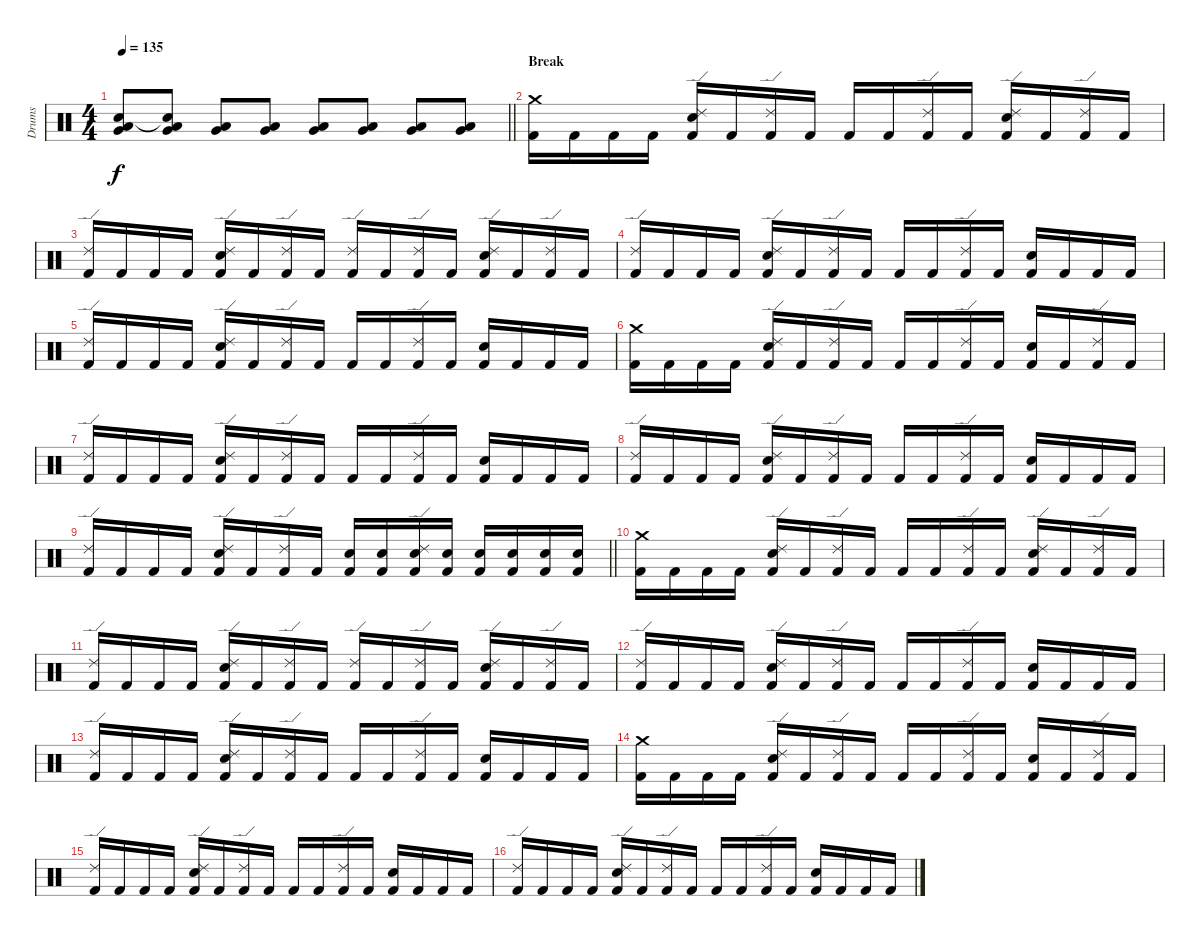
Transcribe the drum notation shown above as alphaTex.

\track ("Drums" "Drums") {instrument percussion}
\staff {score}
\articulation defaults
\ts (4 4)
\tempo 135
\clef neutral
\barLineRight lightlight
\ks c
("Very Low Tom (hit)" "Low Floor Tom (hit)" "Snare (hit)"{t}).8{dy f} ("Very Low Tom (hit)" "Low Floor Tom (hit)" "Snare (hit)"{t}).8 ("Very Low Tom (hit)" "Low Floor Tom (hit)").8 ("Very Low Tom (hit)" "Low Floor Tom (hit)").8 ("Very Low Tom (hit)" "Low Floor Tom (hit)").8 ("Very Low Tom (hit)" "Low Floor Tom (hit)").8 ("Very Low Tom (hit)" "Low Floor Tom (hit)").8 ("Very Low Tom (hit)" "Low Floor Tom (hit)").8 |
\section ("" "Break")
("Kick (hit) 2" "Crash medium (hit)").16 "Kick (hit) 2".16 "Kick (hit) 2".16 "Kick (hit) 2".16 ("Kick (hit) 2" "Snare (hit) 2" "Ride (edge) 2").16 "Kick (hit) 2".16 ("Kick (hit) 2" "Ride (edge) 2").16 "Kick (hit) 2".16 "Kick (hit) 2".16 "Kick (hit) 2".16 ("Kick (hit) 2" "Ride (edge) 2").16 "Kick (hit) 2".16 ("Kick (hit) 2" "Snare (hit) 2" "Ride (edge) 2").16 "Kick (hit) 2".16 ("Kick (hit) 2" "Ride (edge) 2").16 "Kick (hit) 2".16 |
("Kick (hit) 2" "Ride (edge) 2").16 "Kick (hit) 2".16 "Kick (hit) 2".16 "Kick (hit) 2".16 ("Kick (hit) 2" "Snare (hit) 2" "Ride (edge) 2").16 "Kick (hit) 2".16 ("Kick (hit) 2" "Ride (edge) 2").16 "Kick (hit) 2".16 ("Kick (hit) 2" "Ride (edge) 2").16 "Kick (hit) 2".16 ("Kick (hit) 2" "Ride (edge) 2").16 "Kick (hit) 2".16 ("Kick (hit) 2" "Snare (hit) 2" "Ride (edge) 2").16 "Kick (hit) 2".16 ("Kick (hit) 2" "Ride (edge) 2").16 "Kick (hit) 2".16 |
("Kick (hit) 2" "Ride (edge) 2").16 "Kick (hit) 2".16 "Kick (hit) 2".16 "Kick (hit) 2".16 ("Kick (hit) 2" "Snare (hit) 2" "Ride (edge) 2").16 "Kick (hit) 2".16 ("Kick (hit) 2" "Ride (edge) 2").16 "Kick (hit) 2".16 "Kick (hit) 2".16 "Kick (hit) 2".16 ("Kick (hit) 2" "Ride (edge) 2").16 "Kick (hit) 2".16 ("Kick (hit) 2" "Snare (hit) 2").16 "Kick (hit) 2".16 "Kick (hit) 2".16 "Kick (hit) 2".16 |
("Kick (hit) 2" "Ride (edge) 2").16 "Kick (hit) 2".16 "Kick (hit) 2".16 "Kick (hit) 2".16 ("Kick (hit) 2" "Snare (hit) 2" "Ride (edge) 2").16 "Kick (hit) 2".16 ("Kick (hit) 2" "Ride (edge) 2").16 "Kick (hit) 2".16 "Kick (hit) 2".16 "Kick (hit) 2".16 ("Kick (hit) 2" "Ride (edge) 2").16 "Kick (hit) 2".16 ("Kick (hit) 2" "Snare (hit) 2").16 "Kick (hit) 2".16 "Kick (hit) 2".16 "Kick (hit) 2".16 |
("Kick (hit) 2" "Crash medium (hit)").16 "Kick (hit) 2".16 "Kick (hit) 2".16 "Kick (hit) 2".16 ("Kick (hit) 2" "Snare (hit) 2" "Ride (edge) 2").16 "Kick (hit) 2".16 ("Kick (hit) 2" "Ride (edge) 2").16 "Kick (hit) 2".16 "Kick (hit) 2".16 "Kick (hit) 2".16 ("Kick (hit) 2" "Ride (edge) 2").16 "Kick (hit) 2".16 ("Kick (hit) 2" "Snare (hit) 2").16 "Kick (hit) 2".16 ("Kick (hit) 2" "Ride (edge) 2").16 "Kick (hit) 2".16 |
("Kick (hit) 2" "Ride (edge) 2").16 "Kick (hit) 2".16 "Kick (hit) 2".16 "Kick (hit) 2".16 ("Kick (hit) 2" "Snare (hit) 2" "Ride (edge) 2").16 "Kick (hit) 2".16 ("Kick (hit) 2" "Ride (edge) 2").16 "Kick (hit) 2".16 "Kick (hit) 2".16 "Kick (hit) 2".16 ("Kick (hit) 2" "Ride (edge) 2").16 "Kick (hit) 2".16 ("Kick (hit) 2" "Snare (hit) 2").16 "Kick (hit) 2".16 "Kick (hit) 2".16 "Kick (hit) 2".16 |
("Kick (hit) 2" "Ride (edge) 2").16 "Kick (hit) 2".16 "Kick (hit) 2".16 "Kick (hit) 2".16 ("Kick (hit) 2" "Snare (hit) 2" "Ride (edge) 2").16 "Kick (hit) 2".16 ("Kick (hit) 2" "Ride (edge) 2").16 "Kick (hit) 2".16 "Kick (hit) 2".16 "Kick (hit) 2".16 ("Kick (hit) 2" "Ride (edge) 2").16 "Kick (hit) 2".16 ("Kick (hit) 2" "Snare (hit) 2").16 "Kick (hit) 2".16 "Kick (hit) 2".16 "Kick (hit) 2".16 |
\barLineRight lightlight
("Kick (hit) 2" "Ride (edge) 2").16 "Kick (hit) 2".16 "Kick (hit) 2".16 "Kick (hit) 2".16 ("Kick (hit) 2" "Snare (hit) 2" "Ride (edge) 2").16 "Kick (hit) 2".16 ("Kick (hit) 2" "Ride (edge) 2").16 "Kick (hit) 2".16 ("Kick (hit) 2" "Snare (hit) 2").16 ("Kick (hit) 2" "Snare (hit) 2").16 ("Kick (hit) 2" "Snare (hit) 2" "Ride (edge) 2").16 ("Kick (hit) 2" "Snare (hit) 2").16 ("Kick (hit) 2" "Snare (hit) 2").16 ("Kick (hit) 2" "Snare (hit) 2").16 ("Kick (hit) 2" "Snare (hit) 2").16 ("Kick (hit) 2" "Snare (hit) 2").16 |
\section ("" "")
("Kick (hit) 2" "Crash medium (hit)").16 "Kick (hit) 2".16 "Kick (hit) 2".16 "Kick (hit) 2".16 ("Kick (hit) 2" "Snare (hit) 2" "Ride (edge) 2").16 "Kick (hit) 2".16 ("Kick (hit) 2" "Ride (edge) 2").16 "Kick (hit) 2".16 "Kick (hit) 2".16 "Kick (hit) 2".16 ("Kick (hit) 2" "Ride (edge) 2").16 "Kick (hit) 2".16 ("Kick (hit) 2" "Snare (hit) 2" "Ride (edge) 2").16 "Kick (hit) 2".16 ("Kick (hit) 2" "Ride (edge) 2").16 "Kick (hit) 2".16 |
("Kick (hit) 2" "Ride (edge) 2").16 "Kick (hit) 2".16 "Kick (hit) 2".16 "Kick (hit) 2".16 ("Kick (hit) 2" "Snare (hit) 2" "Ride (edge) 2").16 "Kick (hit) 2".16 ("Kick (hit) 2" "Ride (edge) 2").16 "Kick (hit) 2".16 ("Kick (hit) 2" "Ride (edge) 2").16 "Kick (hit) 2".16 ("Kick (hit) 2" "Ride (edge) 2").16 "Kick (hit) 2".16 ("Kick (hit) 2" "Snare (hit) 2" "Ride (edge) 2").16 "Kick (hit) 2".16 ("Kick (hit) 2" "Ride (edge) 2").16 "Kick (hit) 2".16 |
("Kick (hit) 2" "Ride (edge) 2").16 "Kick (hit) 2".16 "Kick (hit) 2".16 "Kick (hit) 2".16 ("Kick (hit) 2" "Snare (hit) 2" "Ride (edge) 2").16 "Kick (hit) 2".16 ("Kick (hit) 2" "Ride (edge) 2").16 "Kick (hit) 2".16 "Kick (hit) 2".16 "Kick (hit) 2".16 ("Kick (hit) 2" "Ride (edge) 2").16 "Kick (hit) 2".16 ("Kick (hit) 2" "Snare (hit) 2").16 "Kick (hit) 2".16 "Kick (hit) 2".16 "Kick (hit) 2".16 |
("Kick (hit) 2" "Ride (edge) 2").16 "Kick (hit) 2".16 "Kick (hit) 2".16 "Kick (hit) 2".16 ("Kick (hit) 2" "Snare (hit) 2" "Ride (edge) 2").16 "Kick (hit) 2".16 ("Kick (hit) 2" "Ride (edge) 2").16 "Kick (hit) 2".16 "Kick (hit) 2".16 "Kick (hit) 2".16 ("Kick (hit) 2" "Ride (edge) 2").16 "Kick (hit) 2".16 ("Kick (hit) 2" "Snare (hit) 2").16 "Kick (hit) 2".16 "Kick (hit) 2".16 "Kick (hit) 2".16 |
("Kick (hit) 2" "Crash medium (hit)").16 "Kick (hit) 2".16 "Kick (hit) 2".16 "Kick (hit) 2".16 ("Kick (hit) 2" "Snare (hit) 2" "Ride (edge) 2").16 "Kick (hit) 2".16 ("Kick (hit) 2" "Ride (edge) 2").16 "Kick (hit) 2".16 "Kick (hit) 2".16 "Kick (hit) 2".16 ("Kick (hit) 2" "Ride (edge) 2").16 "Kick (hit) 2".16 ("Kick (hit) 2" "Snare (hit) 2").16 "Kick (hit) 2".16 ("Kick (hit) 2" "Ride (edge) 2").16 "Kick (hit) 2".16 |
("Kick (hit) 2" "Ride (edge) 2").16 "Kick (hit) 2".16 "Kick (hit) 2".16 "Kick (hit) 2".16 ("Kick (hit) 2" "Snare (hit) 2" "Ride (edge) 2").16 "Kick (hit) 2".16 ("Kick (hit) 2" "Ride (edge) 2").16 "Kick (hit) 2".16 "Kick (hit) 2".16 "Kick (hit) 2".16 ("Kick (hit) 2" "Ride (edge) 2").16 "Kick (hit) 2".16 ("Kick (hit) 2" "Snare (hit) 2").16 "Kick (hit) 2".16 "Kick (hit) 2".16 "Kick (hit) 2".16 |
("Kick (hit) 2" "Ride (edge) 2").16 "Kick (hit) 2".16 "Kick (hit) 2".16 "Kick (hit) 2".16 ("Kick (hit) 2" "Snare (hit) 2" "Ride (edge) 2").16 "Kick (hit) 2".16 ("Kick (hit) 2" "Ride (edge) 2").16 "Kick (hit) 2".16 "Kick (hit) 2".16 "Kick (hit) 2".16 ("Kick (hit) 2" "Ride (edge) 2").16 "Kick (hit) 2".16 ("Kick (hit) 2" "Snare (hit) 2").16 "Kick (hit) 2".16 "Kick (hit) 2".16 "Kick (hit) 2".16
